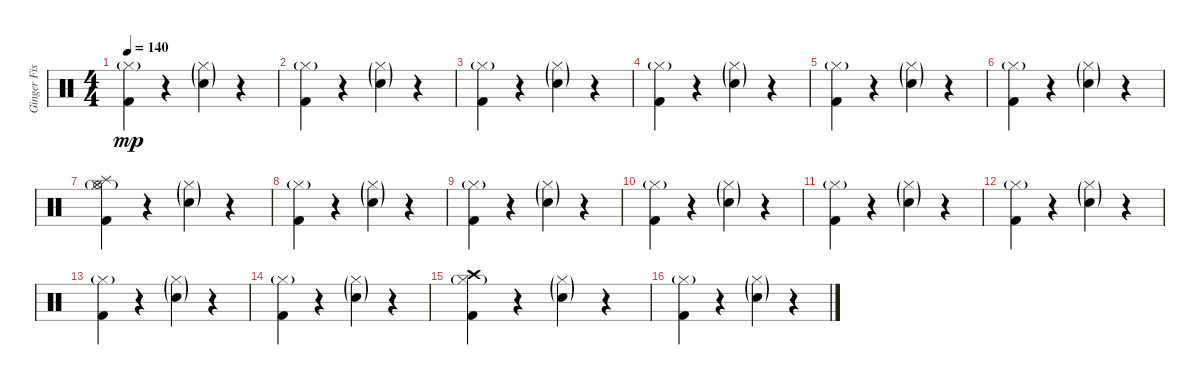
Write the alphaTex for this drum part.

\track ("Ginger Fish" "Ginger Fis") {instrument percussion}
\staff {score}
\articulation defaults
\ts (4 4)
\tempo 140
\clef neutral
\ks c
("Hi-Hat (closed)"{g} "Kick (hit) 2").4{dy mp} r.4 ("Hi-Hat (closed)"{g} "Electric Snare (hit)"{g}).4 r.4 |
("Hi-Hat (closed)"{g} "Kick (hit) 2").4 r.4 ("Hi-Hat (closed)"{g} "Electric Snare (hit)"{g}).4 r.4 |
("Hi-Hat (closed)"{g} "Kick (hit) 2").4 r.4 ("Hi-Hat (closed)"{g} "Electric Snare (hit)"{g}).4 r.4 |
("Hi-Hat (closed)"{g} "Kick (hit) 2").4 r.4 ("Hi-Hat (closed)"{g} "Electric Snare (hit)"{g}).4 r.4 |
("Hi-Hat (closed)"{g} "Kick (hit) 2").4 r.4 ("Hi-Hat (closed)"{g} "Electric Snare (hit)"{g}).4 r.4 |
("Hi-Hat (closed)"{g} "Kick (hit) 2").4 r.4 ("Hi-Hat (closed)"{g} "Electric Snare (hit)"{g}).4 r.4 |
("Hi-Hat (closed)"{g} "Hi-Hat (open)"{g} "Splash (hit)" "Kick (hit) 2").4 r.4 ("Hi-Hat (closed)"{g} "Electric Snare (hit)"{g}).4 r.4 |
("Hi-Hat (closed)"{g} "Kick (hit) 2").4 r.4 ("Hi-Hat (closed)"{g} "Electric Snare (hit)"{g}).4 r.4 |
("Hi-Hat (closed)"{g} "Kick (hit) 2").4 r.4 ("Hi-Hat (closed)"{g} "Electric Snare (hit)"{g}).4 r.4 |
("Hi-Hat (closed)"{g} "Kick (hit) 2").4 r.4 ("Hi-Hat (closed)"{g} "Electric Snare (hit)"{g}).4 r.4 |
("Hi-Hat (closed)"{g} "Kick (hit) 2").4 r.4 ("Hi-Hat (closed)"{g} "Electric Snare (hit)"{g}).4 r.4 |
("Hi-Hat (closed)"{g} "Kick (hit) 2").4 r.4 ("Hi-Hat (closed)"{g} "Electric Snare (hit)"{g}).4 r.4 |
("Hi-Hat (closed)"{g} "Kick (hit) 2").4 r.4 ("Hi-Hat (closed)"{g} "Electric Snare (hit)"{g}).4 r.4 |
("Hi-Hat (closed)"{g} "Kick (hit) 2").4 r.4 ("Hi-Hat (closed)"{g} "Electric Snare (hit)"{g}).4 r.4 |
("Hi-Hat (closed)"{g} "Crash high (hit)" "Kick (hit) 2").4 r.4 ("Hi-Hat (closed)"{g} "Electric Snare (hit)"{g}).4 r.4 |
("Hi-Hat (closed)"{g} "Kick (hit) 2").4 r.4 ("Hi-Hat (closed)"{g} "Electric Snare (hit)"{g}).4 r.4
